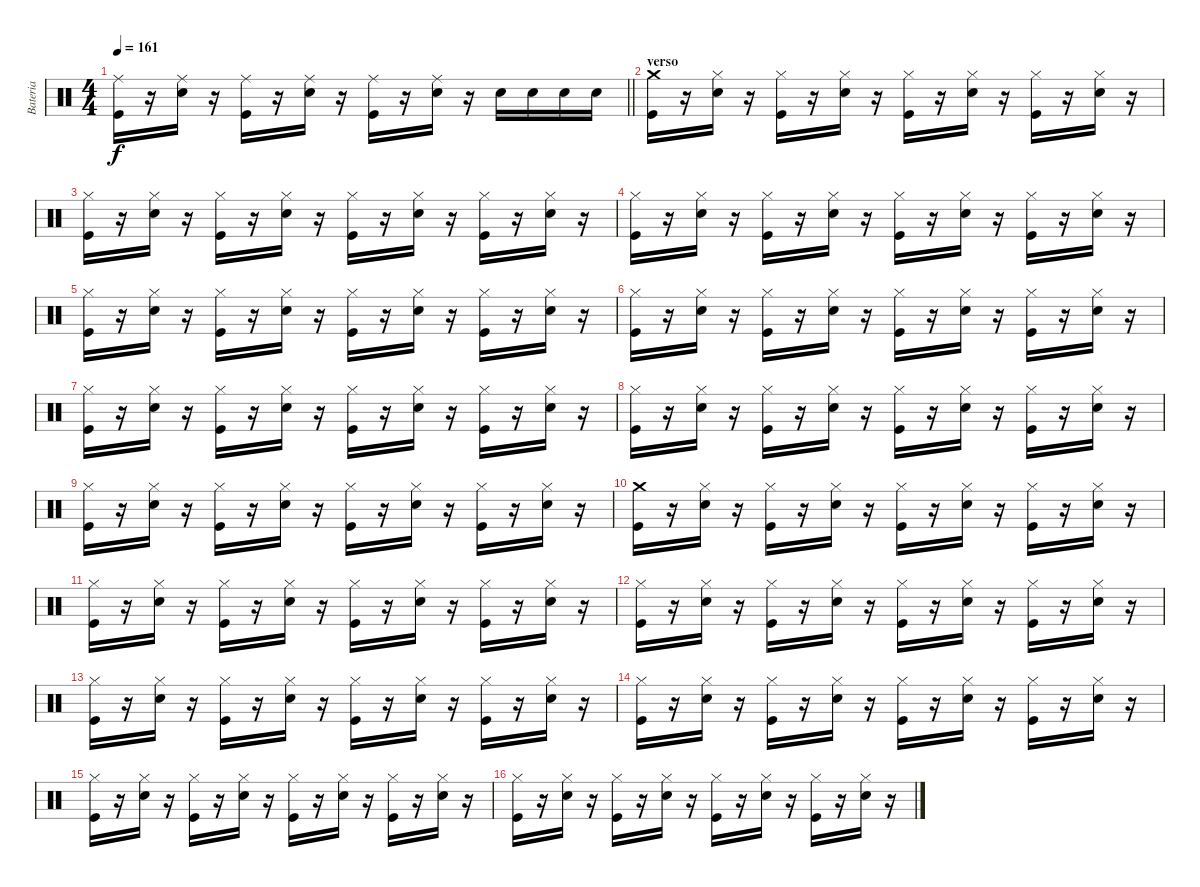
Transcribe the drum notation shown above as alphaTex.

\track ("Bateria" "Bateria") {instrument percussion}
\staff {score}
\articulation defaults
\ts (4 4)
\tempo 161
\clef neutral
\barLineRight lightlight
\ks c
("Ride (middle)" "Kick (hit)").16{dy f} r.16 ("Ride (middle)" "Snare (hit) 2").16 r.16 ("Ride (middle)" "Kick (hit)").16 r.16 ("Ride (middle)" "Snare (hit) 2").16 r.16 ("Ride (middle)" "Kick (hit)").16 r.16 ("Ride (middle)" "Snare (hit) 2").16 r.16 "Snare (hit) 2".16 "Snare (hit) 2".16 "Snare (hit) 2".16 "Snare (hit) 2".16 |
\section ("" "verso")
("Crash medium (hit)" "Kick (hit)").16 r.16 ("Hi-Hat (closed)" "Snare (hit) 2").16 r.16 ("Hi-Hat (closed)" "Kick (hit)").16 r.16 ("Hi-Hat (closed)" "Snare (hit) 2").16 r.16 ("Hi-Hat (closed)" "Kick (hit)").16 r.16 ("Hi-Hat (closed)" "Snare (hit) 2").16 r.16 ("Hi-Hat (closed)" "Kick (hit)").16 r.16 ("Hi-Hat (closed)" "Snare (hit) 2").16 r.16 |
("Hi-Hat (closed)" "Kick (hit)").16 r.16 ("Hi-Hat (closed)" "Snare (hit) 2").16 r.16 ("Hi-Hat (closed)" "Kick (hit)").16 r.16 ("Hi-Hat (closed)" "Snare (hit) 2").16 r.16 ("Hi-Hat (closed)" "Kick (hit)").16 r.16 ("Hi-Hat (closed)" "Snare (hit) 2").16 r.16 ("Hi-Hat (closed)" "Kick (hit)").16 r.16 ("Hi-Hat (closed)" "Snare (hit) 2").16 r.16 |
("Hi-Hat (closed)" "Kick (hit)").16 r.16 ("Hi-Hat (closed)" "Snare (hit) 2").16 r.16 ("Hi-Hat (closed)" "Kick (hit)").16 r.16 ("Hi-Hat (closed)" "Snare (hit) 2").16 r.16 ("Hi-Hat (closed)" "Kick (hit)").16 r.16 ("Hi-Hat (closed)" "Snare (hit) 2").16 r.16 ("Hi-Hat (closed)" "Kick (hit)").16 r.16 ("Hi-Hat (closed)" "Snare (hit) 2").16 r.16 |
("Hi-Hat (closed)" "Kick (hit)").16 r.16 ("Hi-Hat (closed)" "Snare (hit) 2").16 r.16 ("Hi-Hat (closed)" "Kick (hit)").16 r.16 ("Hi-Hat (closed)" "Snare (hit) 2").16 r.16 ("Hi-Hat (closed)" "Kick (hit)").16 r.16 ("Hi-Hat (closed)" "Snare (hit) 2").16 r.16 ("Hi-Hat (closed)" "Kick (hit)").16 r.16 ("Hi-Hat (closed)" "Snare (hit) 2").16 r.16 |
("Hi-Hat (closed)" "Kick (hit)").16 r.16 ("Hi-Hat (closed)" "Snare (hit) 2").16 r.16 ("Hi-Hat (closed)" "Kick (hit)").16 r.16 ("Hi-Hat (closed)" "Snare (hit) 2").16 r.16 ("Hi-Hat (closed)" "Kick (hit)").16 r.16 ("Hi-Hat (closed)" "Snare (hit) 2").16 r.16 ("Hi-Hat (closed)" "Kick (hit)").16 r.16 ("Hi-Hat (closed)" "Snare (hit) 2").16 r.16 |
("Hi-Hat (closed)" "Kick (hit)").16 r.16 ("Hi-Hat (closed)" "Snare (hit) 2").16 r.16 ("Hi-Hat (closed)" "Kick (hit)").16 r.16 ("Hi-Hat (closed)" "Snare (hit) 2").16 r.16 ("Hi-Hat (closed)" "Kick (hit)").16 r.16 ("Hi-Hat (closed)" "Snare (hit) 2").16 r.16 ("Hi-Hat (closed)" "Kick (hit)").16 r.16 ("Hi-Hat (closed)" "Snare (hit) 2").16 r.16 |
("Hi-Hat (closed)" "Kick (hit)").16 r.16 ("Hi-Hat (closed)" "Snare (hit) 2").16 r.16 ("Hi-Hat (closed)" "Kick (hit)").16 r.16 ("Hi-Hat (closed)" "Snare (hit) 2").16 r.16 ("Hi-Hat (closed)" "Kick (hit)").16 r.16 ("Hi-Hat (closed)" "Snare (hit) 2").16 r.16 ("Hi-Hat (closed)" "Kick (hit)").16 r.16 ("Hi-Hat (closed)" "Snare (hit) 2").16 r.16 |
("Hi-Hat (closed)" "Kick (hit)").16 r.16 ("Hi-Hat (closed)" "Snare (hit) 2").16 r.16 ("Hi-Hat (closed)" "Kick (hit)").16 r.16 ("Hi-Hat (closed)" "Snare (hit) 2").16 r.16 ("Hi-Hat (closed)" "Kick (hit)").16 r.16 ("Hi-Hat (closed)" "Snare (hit) 2").16 r.16 ("Hi-Hat (closed)" "Kick (hit)").16 r.16 ("Hi-Hat (closed)" "Snare (hit) 2").16 r.16 |
("Crash medium (hit)" "Kick (hit)").16 r.16 ("Hi-Hat (closed)" "Snare (hit) 2").16 r.16 ("Hi-Hat (closed)" "Kick (hit)").16 r.16 ("Hi-Hat (closed)" "Snare (hit) 2").16 r.16 ("Hi-Hat (closed)" "Kick (hit)").16 r.16 ("Hi-Hat (closed)" "Snare (hit) 2").16 r.16 ("Hi-Hat (closed)" "Kick (hit)").16 r.16 ("Hi-Hat (closed)" "Snare (hit) 2").16 r.16 |
("Hi-Hat (closed)" "Kick (hit)").16 r.16 ("Hi-Hat (closed)" "Snare (hit) 2").16 r.16 ("Hi-Hat (closed)" "Kick (hit)").16 r.16 ("Hi-Hat (closed)" "Snare (hit) 2").16 r.16 ("Hi-Hat (closed)" "Kick (hit)").16 r.16 ("Hi-Hat (closed)" "Snare (hit) 2").16 r.16 ("Hi-Hat (closed)" "Kick (hit)").16 r.16 ("Hi-Hat (closed)" "Snare (hit) 2").16 r.16 |
("Hi-Hat (closed)" "Kick (hit)").16 r.16 ("Hi-Hat (closed)" "Snare (hit) 2").16 r.16 ("Hi-Hat (closed)" "Kick (hit)").16 r.16 ("Hi-Hat (closed)" "Snare (hit) 2").16 r.16 ("Hi-Hat (closed)" "Kick (hit)").16 r.16 ("Hi-Hat (closed)" "Snare (hit) 2").16 r.16 ("Hi-Hat (closed)" "Kick (hit)").16 r.16 ("Hi-Hat (closed)" "Snare (hit) 2").16 r.16 |
("Hi-Hat (closed)" "Kick (hit)").16 r.16 ("Hi-Hat (closed)" "Snare (hit) 2").16 r.16 ("Hi-Hat (closed)" "Kick (hit)").16 r.16 ("Hi-Hat (closed)" "Snare (hit) 2").16 r.16 ("Hi-Hat (closed)" "Kick (hit)").16 r.16 ("Hi-Hat (closed)" "Snare (hit) 2").16 r.16 ("Hi-Hat (closed)" "Kick (hit)").16 r.16 ("Hi-Hat (closed)" "Snare (hit) 2").16 r.16 |
("Hi-Hat (closed)" "Kick (hit)").16 r.16 ("Hi-Hat (closed)" "Snare (hit) 2").16 r.16 ("Hi-Hat (closed)" "Kick (hit)").16 r.16 ("Hi-Hat (closed)" "Snare (hit) 2").16 r.16 ("Hi-Hat (closed)" "Kick (hit)").16 r.16 ("Hi-Hat (closed)" "Snare (hit) 2").16 r.16 ("Hi-Hat (closed)" "Kick (hit)").16 r.16 ("Hi-Hat (closed)" "Snare (hit) 2").16 r.16 |
("Hi-Hat (closed)" "Kick (hit)").16 r.16 ("Hi-Hat (closed)" "Snare (hit) 2").16 r.16 ("Hi-Hat (closed)" "Kick (hit)").16 r.16 ("Hi-Hat (closed)" "Snare (hit) 2").16 r.16 ("Hi-Hat (closed)" "Kick (hit)").16 r.16 ("Hi-Hat (closed)" "Snare (hit) 2").16 r.16 ("Hi-Hat (closed)" "Kick (hit)").16 r.16 ("Hi-Hat (closed)" "Snare (hit) 2").16 r.16 |
("Hi-Hat (closed)" "Kick (hit)").16 r.16 ("Hi-Hat (closed)" "Snare (hit) 2").16 r.16 ("Hi-Hat (closed)" "Kick (hit)").16 r.16 ("Hi-Hat (closed)" "Snare (hit) 2").16 r.16 ("Hi-Hat (closed)" "Kick (hit)").16 r.16 ("Hi-Hat (closed)" "Snare (hit) 2").16 r.16 ("Hi-Hat (closed)" "Kick (hit)").16 r.16 ("Hi-Hat (closed)" "Snare (hit) 2").16 r.16
